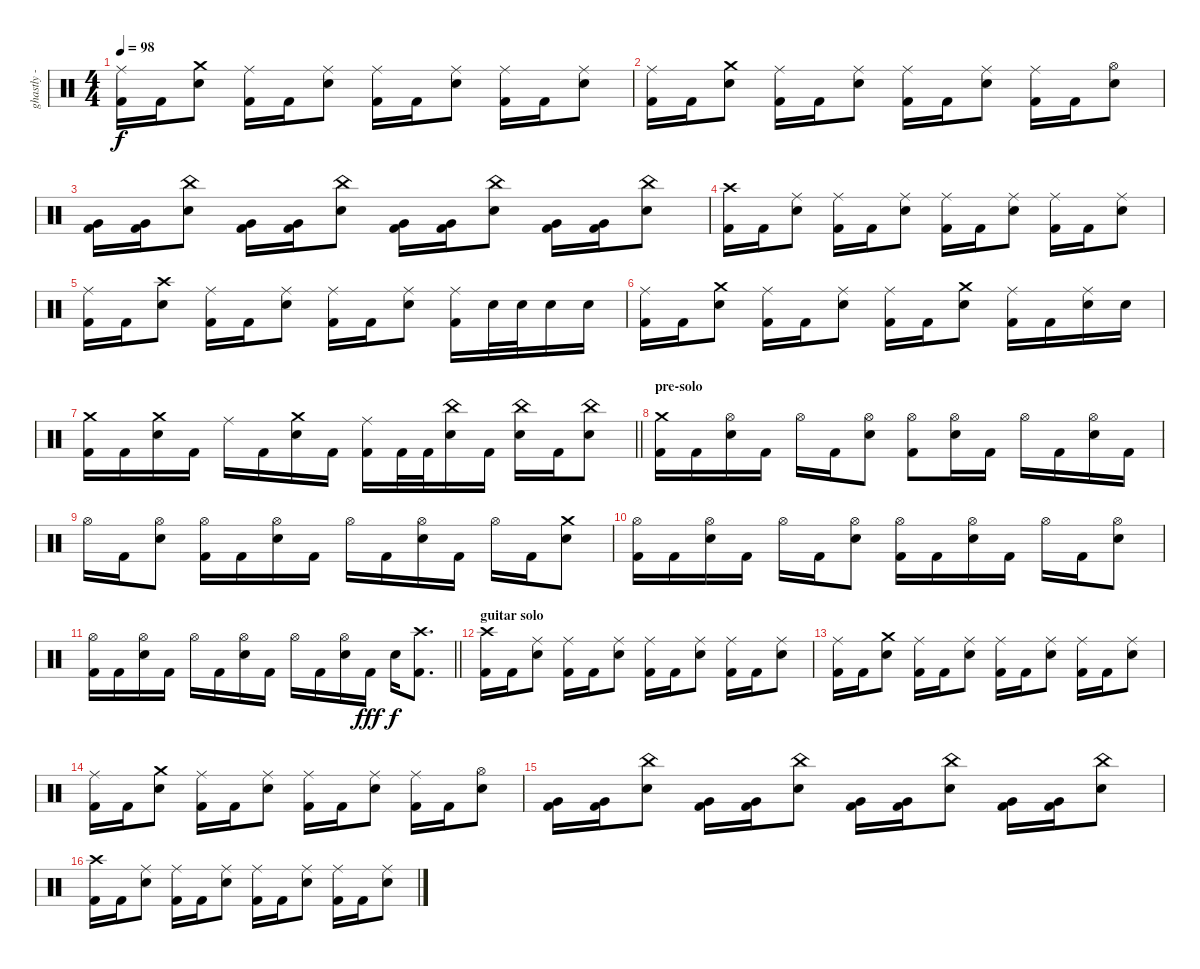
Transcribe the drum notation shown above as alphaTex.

\track ("ghastly - drums" "ghastly - ") {instrument percussion}
\staff {score}
\articulation defaults
\ts (4 4)
\tempo 98
\clef neutral
\ks c
("Ride (middle)" "Kick (hit) 2").16{dy f} "Kick (hit) 2".16 ("Crash medium (hit)" "Electric Snare (hit)").8 ("Ride (middle)" "Kick (hit) 2").16 "Kick (hit) 2".16 ("Ride (middle)" "Electric Snare (hit)").8 ("Ride (middle)" "Kick (hit) 2").16 "Kick (hit) 2".16 ("Ride (middle)" "Electric Snare (hit)").8 ("Ride (middle)" "Kick (hit) 2").16 "Kick (hit) 2".16 ("Ride (middle)" "Electric Snare (hit)").8 |
("Ride (middle)" "Kick (hit) 2").16 "Kick (hit) 2".16 ("Crash medium (hit)" "Electric Snare (hit)").8 ("Ride (middle)" "Kick (hit) 2").16 "Kick (hit) 2".16 ("Ride (middle)" "Electric Snare (hit)").8 ("Ride (middle)" "Kick (hit) 2").16 "Kick (hit) 2".16 ("Ride (middle)" "Electric Snare (hit)").8 ("Ride (middle)" "Kick (hit) 2").16 "Kick (hit) 2".16 ("Hi-Hat (open)" "Electric Snare (hit)").8 |
("Very Low Tom (hit)" "Kick (hit) 2").16 ("Very Low Tom (hit)" "Kick (hit) 2").16 ("China (hit)" "Electric Snare (hit)").8 ("Very Low Tom (hit)" "Kick (hit) 2").16 ("Very Low Tom (hit)" "Kick (hit) 2").16 ("China (hit)" "Electric Snare (hit)").8 ("Very Low Tom (hit)" "Kick (hit) 2").16 ("Very Low Tom (hit)" "Kick (hit) 2").16 ("China (hit)" "Electric Snare (hit)").8 ("Very Low Tom (hit)" "Kick (hit) 2").16 ("Very Low Tom (hit)" "Kick (hit) 2").16 ("China (hit)" "Electric Snare (hit)").8 |
("Crash high (hit)" "Kick (hit) 2").16 "Kick (hit) 2".16 ("Ride (middle)" "Electric Snare (hit)").8 ("Ride (middle)" "Kick (hit) 2").16 "Kick (hit) 2".16 ("Ride (middle)" "Electric Snare (hit)").8 ("Ride (middle)" "Kick (hit) 2").16 "Kick (hit) 2".16 ("Ride (middle)" "Electric Snare (hit)").8 ("Ride (middle)" "Kick (hit) 2").16 "Kick (hit) 2".16 ("Ride (middle)" "Electric Snare (hit)").8 |
("Ride (middle)" "Kick (hit) 2").16 "Kick (hit) 2".16 ("Crash high (hit)" "Electric Snare (hit)").8 ("Ride (middle)" "Kick (hit) 2").16 "Kick (hit) 2".16 ("Ride (middle)" "Electric Snare (hit)").8 ("Ride (middle)" "Kick (hit) 2").16 "Kick (hit) 2".16 ("Ride (middle)" "Electric Snare (hit)").8 ("Ride (middle)" "Kick (hit) 2").16 "Electric Snare (hit)".32 "Electric Snare (hit)".32 "Electric Snare (hit)".16 "Electric Snare (hit)".16 |
("Ride (middle)" "Kick (hit) 2").16 "Kick (hit) 2".16 ("Crash medium (hit)" "Electric Snare (hit)").8 ("Ride (middle)" "Kick (hit) 2").16 "Kick (hit) 2".16 ("Ride (middle)" "Electric Snare (hit)").8 ("Ride (middle)" "Kick (hit) 2").16 "Kick (hit) 2".16 ("Crash medium (hit)" "Electric Snare (hit)").8 ("Ride (middle)" "Kick (hit) 2").16 "Kick (hit) 2".16 ("Ride (middle)" "Electric Snare (hit)").16 "Electric Snare (hit)".16 |
\barLineRight lightlight
("Crash medium (hit)" "Kick (hit) 2").16 "Kick (hit) 2".16 ("Crash medium (hit)" "Electric Snare (hit)").16 "Kick (hit) 2".16 "Ride (middle)".16 "Kick (hit) 2".16 ("Crash medium (hit)" "Electric Snare (hit)").16 "Kick (hit) 2".16 ("Ride (middle)" "Kick (hit) 2").16 "Kick (hit) 2".32 "Kick (hit) 2".32 ("China (hit)" "Electric Snare (hit)").16 "Kick (hit) 2".16 ("China (hit)" "Electric Snare (hit)").16 "Kick (hit) 2".16 ("China (hit)" "Electric Snare (hit)").8 |
\section ("" "pre-solo")
("Crash medium (hit)" "Kick (hit) 2").16 "Kick (hit) 2".16 ("Hi-Hat (open)" "Electric Snare (hit)").16 "Kick (hit) 2".16 "Hi-Hat (open)".16 "Kick (hit) 2".16 ("Hi-Hat (open)" "Electric Snare (hit)").8 ("Hi-Hat (open)" "Kick (hit) 2").8 ("Hi-Hat (open)" "Electric Snare (hit)").16 "Kick (hit) 2".16 "Hi-Hat (open)".16 "Kick (hit) 2".16 ("Hi-Hat (open)" "Electric Snare (hit)").16 "Kick (hit) 2".16 |
"Hi-Hat (open)".16 "Kick (hit) 2".16 ("Hi-Hat (open)" "Electric Snare (hit)").8 ("Hi-Hat (open)" "Kick (hit) 2").16 "Kick (hit) 2".16 ("Hi-Hat (open)" "Electric Snare (hit)").16 "Kick (hit) 2".16 "Hi-Hat (open)".16 "Kick (hit) 2".16 ("Hi-Hat (open)" "Electric Snare (hit)").16 "Kick (hit) 2".16 "Hi-Hat (open)".16 "Kick (hit) 2".16 ("Crash medium (hit)" "Electric Snare (hit)").8 |
("Hi-Hat (open)" "Kick (hit) 2").16 "Kick (hit) 2".16 ("Hi-Hat (open)" "Electric Snare (hit)").16 "Kick (hit) 2".16 "Hi-Hat (open)".16 "Kick (hit) 2".16 ("Hi-Hat (open)" "Electric Snare (hit)").8 ("Hi-Hat (open)" "Kick (hit) 2").16 "Kick (hit) 2".16 ("Hi-Hat (open)" "Electric Snare (hit)").16 "Kick (hit) 2".16 "Hi-Hat (open)".16 "Kick (hit) 2".16 ("Hi-Hat (open)" "Electric Snare (hit)").8 |
\barLineRight lightlight
("Hi-Hat (open)" "Kick (hit) 2").16 "Kick (hit) 2".16 ("Hi-Hat (open)" "Electric Snare (hit)").16 "Kick (hit) 2".16 "Hi-Hat (open)".16 "Kick (hit) 2".16 ("Hi-Hat (open)" "Electric Snare (hit)").16 "Kick (hit) 2".16 "Hi-Hat (open)".16 "Kick (hit) 2".16 ("Hi-Hat (open)" "Electric Snare (hit)").16 "Kick (hit) 2".16{dy fff} "Electric Snare (hit)".16{dy f} ("Crash high (hit)" "Kick (hit) 2").8{d} |
\section ("" "guitar solo")
("Crash high (hit)" "Kick (hit) 2").16 "Kick (hit) 2".16 ("Ride (middle)" "Electric Snare (hit)").8 ("Ride (middle)" "Kick (hit) 2").16 "Kick (hit) 2".16 ("Ride (middle)" "Electric Snare (hit)").8 ("Ride (middle)" "Kick (hit) 2").16 "Kick (hit) 2".16 ("Ride (middle)" "Electric Snare (hit)").8 ("Ride (middle)" "Kick (hit) 2").16 "Kick (hit) 2".16 ("Ride (middle)" "Electric Snare (hit)").8 |
("Ride (middle)" "Kick (hit) 2").16 "Kick (hit) 2".16 ("Crash medium (hit)" "Electric Snare (hit)").8 ("Ride (middle)" "Kick (hit) 2").16 "Kick (hit) 2".16 ("Ride (middle)" "Electric Snare (hit)").8 ("Ride (middle)" "Kick (hit) 2").16 "Kick (hit) 2".16 ("Ride (middle)" "Electric Snare (hit)").8 ("Ride (middle)" "Kick (hit) 2").16 "Kick (hit) 2".16 ("Ride (middle)" "Electric Snare (hit)").8 |
("Ride (middle)" "Kick (hit) 2").16 "Kick (hit) 2".16 ("Crash medium (hit)" "Electric Snare (hit)").8 ("Ride (middle)" "Kick (hit) 2").16 "Kick (hit) 2".16 ("Ride (middle)" "Electric Snare (hit)").8 ("Ride (middle)" "Kick (hit) 2").16 "Kick (hit) 2".16 ("Ride (middle)" "Electric Snare (hit)").8 ("Ride (middle)" "Kick (hit) 2").16 "Kick (hit) 2".16 ("Hi-Hat (open)" "Electric Snare (hit)").8 |
("Very Low Tom (hit)" "Kick (hit) 2").16 ("Very Low Tom (hit)" "Kick (hit) 2").16 ("China (hit)" "Electric Snare (hit)").8 ("Very Low Tom (hit)" "Kick (hit) 2").16 ("Very Low Tom (hit)" "Kick (hit) 2").16 ("China (hit)" "Electric Snare (hit)").8 ("Very Low Tom (hit)" "Kick (hit) 2").16 ("Very Low Tom (hit)" "Kick (hit) 2").16 ("China (hit)" "Electric Snare (hit)").8 ("Very Low Tom (hit)" "Kick (hit) 2").16 ("Very Low Tom (hit)" "Kick (hit) 2").16 ("China (hit)" "Electric Snare (hit)").8 |
("Crash high (hit)" "Kick (hit) 2").16 "Kick (hit) 2".16 ("Ride (middle)" "Electric Snare (hit)").8 ("Ride (middle)" "Kick (hit) 2").16 "Kick (hit) 2".16 ("Ride (middle)" "Electric Snare (hit)").8 ("Ride (middle)" "Kick (hit) 2").16 "Kick (hit) 2".16 ("Ride (middle)" "Electric Snare (hit)").8 ("Ride (middle)" "Kick (hit) 2").16 "Kick (hit) 2".16 ("Ride (middle)" "Electric Snare (hit)").8
